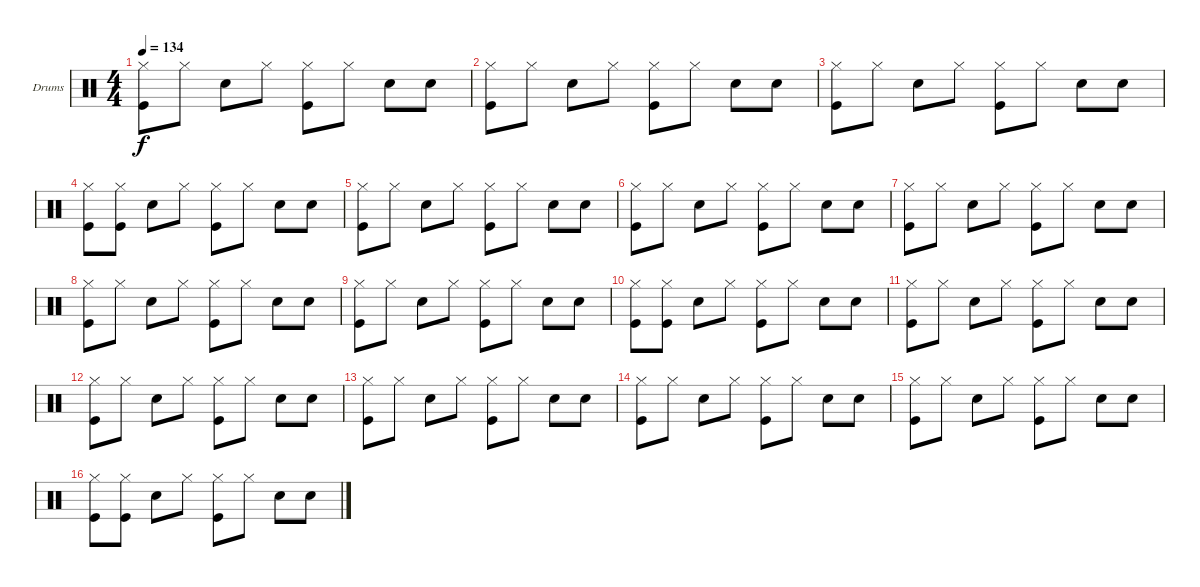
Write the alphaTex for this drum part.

\defaultSystemsLayout 4
\bracketExtendMode groupsimilarinstruments
\firstSystemTrackNameOrientation horizontal
\otherSystemsTrackNameOrientation horizontal
\track ("Гурьянов" "Drums") {instrument percussion}
\staff {score}
\articulation defaults
\ts (4 4)
\tempo 134
\clef neutral
\scale
0.333333
\ks c
("Hi-Hat (closed)" "Kick (hit)").8{dy f} "Hi-Hat (closed)".8 "Snare (hit) 2".8 "Hi-Hat (closed)".8 ("Hi-Hat (closed)" "Kick (hit)").8 "Hi-Hat (closed)".8 "Snare (hit) 2".8 "Snare (hit) 2".8 |
\scale
0.333333 ("Hi-Hat (closed)" "Kick (hit)").8 "Hi-Hat (closed)".8 "Snare (hit) 2".8 "Hi-Hat (closed)".8 ("Hi-Hat (closed)" "Kick (hit)").8 "Hi-Hat (closed)".8 "Snare (hit) 2".8 "Snare (hit) 2".8 |
\scale
0.333333 ("Hi-Hat (closed)" "Kick (hit)").8 "Hi-Hat (closed)".8 "Snare (hit) 2".8 "Hi-Hat (closed)".8 ("Hi-Hat (closed)" "Kick (hit)").8 "Hi-Hat (closed)".8 "Snare (hit) 2".8 "Snare (hit) 2".8 |
\scale
0.333333 ("Hi-Hat (closed)" "Kick (hit)").8 ("Hi-Hat (closed)" "Kick (hit)").8 "Snare (hit) 2".8 "Hi-Hat (closed)".8 ("Hi-Hat (closed)" "Kick (hit)").8 "Hi-Hat (closed)".8 "Snare (hit) 2".8 "Snare (hit) 2".8 |
\scale
0.333333 ("Hi-Hat (closed)" "Kick (hit)").8 "Hi-Hat (closed)".8 "Snare (hit) 2".8 "Hi-Hat (closed)".8 ("Hi-Hat (closed)" "Kick (hit)").8 "Hi-Hat (closed)".8 "Snare (hit) 2".8 "Snare (hit) 2".8 |
\scale
0.333333 ("Hi-Hat (closed)" "Kick (hit)").8 "Hi-Hat (closed)".8 "Snare (hit) 2".8 "Hi-Hat (closed)".8 ("Hi-Hat (closed)" "Kick (hit)").8 "Hi-Hat (closed)".8 "Snare (hit) 2".8 "Snare (hit) 2".8 |
\scale
0.333333 ("Hi-Hat (closed)" "Kick (hit)").8 "Hi-Hat (closed)".8 "Snare (hit) 2".8 "Hi-Hat (closed)".8 ("Hi-Hat (closed)" "Kick (hit)").8 "Hi-Hat (closed)".8 "Snare (hit) 2".8 "Snare (hit) 2".8 |
\scale
0.333333 ("Hi-Hat (closed)" "Kick (hit)").8 "Hi-Hat (closed)".8 "Snare (hit) 2".8 "Hi-Hat (closed)".8 ("Hi-Hat (closed)" "Kick (hit)").8 "Hi-Hat (closed)".8 "Snare (hit) 2".8 "Snare (hit) 2".8 |
\scale
0.333333 ("Hi-Hat (closed)" "Kick (hit)").8 "Hi-Hat (closed)".8 "Snare (hit) 2".8 "Hi-Hat (closed)".8 ("Hi-Hat (closed)" "Kick (hit)").8 "Hi-Hat (closed)".8 "Snare (hit) 2".8 "Snare (hit) 2".8 |
\scale
0.333333 ("Hi-Hat (closed)" "Kick (hit)").8 ("Hi-Hat (closed)" "Kick (hit)").8 "Snare (hit) 2".8 "Hi-Hat (closed)".8 ("Hi-Hat (closed)" "Kick (hit)").8 "Hi-Hat (closed)".8 "Snare (hit) 2".8 "Snare (hit) 2".8 |
\scale
0.333333 ("Hi-Hat (closed)" "Kick (hit)").8 "Hi-Hat (closed)".8 "Snare (hit) 2".8 "Hi-Hat (closed)".8 ("Hi-Hat (closed)" "Kick (hit)").8 "Hi-Hat (closed)".8 "Snare (hit) 2".8 "Snare (hit) 2".8 |
\scale
0.333333 ("Hi-Hat (closed)" "Kick (hit)").8 "Hi-Hat (closed)".8 "Snare (hit) 2".8 "Hi-Hat (closed)".8 ("Hi-Hat (closed)" "Kick (hit)").8 "Hi-Hat (closed)".8 "Snare (hit) 2".8 "Snare (hit) 2".8 |
\scale
0.333333 ("Hi-Hat (closed)" "Kick (hit)").8 "Hi-Hat (closed)".8 "Snare (hit) 2".8 "Hi-Hat (closed)".8 ("Hi-Hat (closed)" "Kick (hit)").8 "Hi-Hat (closed)".8 "Snare (hit) 2".8 "Snare (hit) 2".8 |
\scale
0.333333 ("Hi-Hat (closed)" "Kick (hit)").8 "Hi-Hat (closed)".8 "Snare (hit) 2".8 "Hi-Hat (closed)".8 ("Hi-Hat (closed)" "Kick (hit)").8 "Hi-Hat (closed)".8 "Snare (hit) 2".8 "Snare (hit) 2".8 |
\scale
0.333333 ("Hi-Hat (closed)" "Kick (hit)").8 "Hi-Hat (closed)".8 "Snare (hit) 2".8 "Hi-Hat (closed)".8 ("Hi-Hat (closed)" "Kick (hit)").8 "Hi-Hat (closed)".8 "Snare (hit) 2".8 "Snare (hit) 2".8 |
\scale
0.333333 ("Hi-Hat (closed)" "Kick (hit)").8 ("Hi-Hat (closed)" "Kick (hit)").8 "Snare (hit) 2".8 "Hi-Hat (closed)".8 ("Hi-Hat (closed)" "Kick (hit)").8 "Hi-Hat (closed)".8 "Snare (hit) 2".8 "Snare (hit) 2".8
